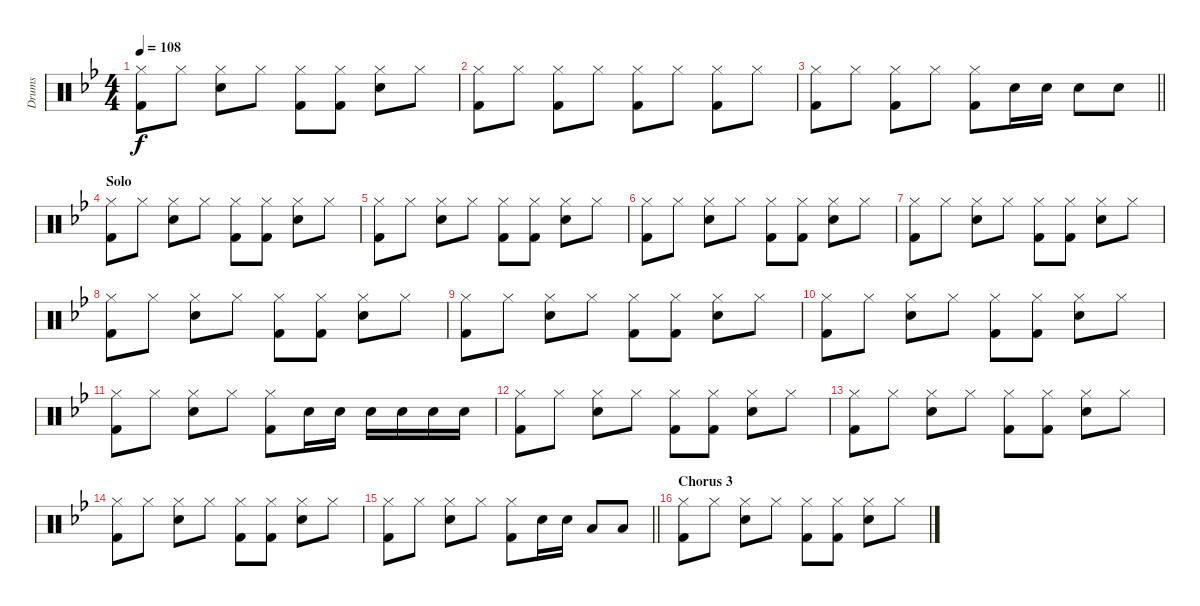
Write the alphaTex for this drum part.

\track ("Drums" "Drums") {instrument percussion}
\staff {score}
\articulation defaults
\ts (4 4)
\tempo 108
\clef neutral
\ks bb
("Hi-Hat (closed)" "Kick (hit) 2").8{dy f} "Hi-Hat (closed)".8 ("Hi-Hat (closed)" "Snare (hit) 2").8 "Hi-Hat (closed)".8 ("Hi-Hat (closed)" "Kick (hit) 2").8 ("Hi-Hat (closed)" "Kick (hit) 2").8 ("Hi-Hat (closed)" "Snare (hit) 2").8 "Hi-Hat (closed)".8 |
("Hi-Hat (closed)" "Kick (hit) 2").8 "Hi-Hat (closed)".8 ("Hi-Hat (closed)" "Kick (hit) 2").8 "Hi-Hat (closed)".8 ("Hi-Hat (closed)" "Kick (hit) 2").8 "Hi-Hat (closed)".8 ("Hi-Hat (closed)" "Kick (hit) 2").8 "Hi-Hat (closed)".8 |
\barLineRight lightlight
("Hi-Hat (closed)" "Kick (hit) 2").8 "Hi-Hat (closed)".8 ("Hi-Hat (closed)" "Kick (hit) 2").8 "Hi-Hat (closed)".8 ("Hi-Hat (closed)" "Kick (hit) 2").8 "Snare (hit) 2".16 "Snare (hit) 2".16 "Snare (hit) 2".8 "Snare (hit) 2".8 |
\section ("" "Solo")
("Hi-Hat (closed)" "Kick (hit) 2").8 "Hi-Hat (closed)".8 ("Hi-Hat (closed)" "Snare (hit) 2").8 "Hi-Hat (closed)".8 ("Hi-Hat (closed)" "Kick (hit) 2").8 ("Hi-Hat (closed)" "Kick (hit) 2").8 ("Hi-Hat (closed)" "Snare (hit) 2").8 "Hi-Hat (closed)".8 |
("Hi-Hat (closed)" "Kick (hit) 2").8 "Hi-Hat (closed)".8 ("Hi-Hat (closed)" "Snare (hit) 2").8 "Hi-Hat (closed)".8 ("Hi-Hat (closed)" "Kick (hit) 2").8 ("Hi-Hat (closed)" "Kick (hit) 2").8 ("Hi-Hat (closed)" "Snare (hit) 2").8 "Hi-Hat (closed)".8 |
("Hi-Hat (closed)" "Kick (hit) 2").8 "Hi-Hat (closed)".8 ("Hi-Hat (closed)" "Snare (hit) 2").8 "Hi-Hat (closed)".8 ("Hi-Hat (closed)" "Kick (hit) 2").8 ("Hi-Hat (closed)" "Kick (hit) 2").8 ("Hi-Hat (closed)" "Snare (hit) 2").8 "Hi-Hat (closed)".8 |
("Hi-Hat (closed)" "Kick (hit) 2").8 "Hi-Hat (closed)".8 ("Hi-Hat (closed)" "Snare (hit) 2").8 "Hi-Hat (closed)".8 ("Hi-Hat (closed)" "Kick (hit) 2").8 ("Hi-Hat (closed)" "Kick (hit) 2").8 ("Hi-Hat (closed)" "Snare (hit) 2").8 "Hi-Hat (closed)".8 |
("Hi-Hat (closed)" "Kick (hit) 2").8 "Hi-Hat (closed)".8 ("Hi-Hat (closed)" "Snare (hit) 2").8 "Hi-Hat (closed)".8 ("Hi-Hat (closed)" "Kick (hit) 2").8 ("Hi-Hat (closed)" "Kick (hit) 2").8 ("Hi-Hat (closed)" "Snare (hit) 2").8 "Hi-Hat (closed)".8 |
("Hi-Hat (closed)" "Kick (hit) 2").8 "Hi-Hat (closed)".8 ("Hi-Hat (closed)" "Snare (hit) 2").8 "Hi-Hat (closed)".8 ("Hi-Hat (closed)" "Kick (hit) 2").8 ("Hi-Hat (closed)" "Kick (hit) 2").8 ("Hi-Hat (closed)" "Snare (hit) 2").8 "Hi-Hat (closed)".8 |
("Hi-Hat (closed)" "Kick (hit) 2").8 "Hi-Hat (closed)".8 ("Hi-Hat (closed)" "Snare (hit) 2").8 "Hi-Hat (closed)".8 ("Hi-Hat (closed)" "Kick (hit) 2").8 ("Hi-Hat (closed)" "Kick (hit) 2").8 ("Hi-Hat (closed)" "Snare (hit) 2").8 "Hi-Hat (closed)".8 |
("Hi-Hat (closed)" "Kick (hit) 2").8 "Hi-Hat (closed)".8 ("Hi-Hat (closed)" "Snare (hit) 2").8 "Hi-Hat (closed)".8 ("Hi-Hat (closed)" "Kick (hit) 2").8 "Snare (hit) 2".16 "Snare (hit) 2".16 "Snare (hit) 2".16 "Snare (hit) 2".16 "Snare (hit) 2".16 "Snare (hit) 2".16 |
("Hi-Hat (closed)" "Kick (hit) 2").8 "Hi-Hat (closed)".8 ("Hi-Hat (closed)" "Snare (hit) 2").8 "Hi-Hat (closed)".8 ("Hi-Hat (closed)" "Kick (hit) 2").8 ("Hi-Hat (closed)" "Kick (hit) 2").8 ("Hi-Hat (closed)" "Snare (hit) 2").8 "Hi-Hat (closed)".8 |
("Hi-Hat (closed)" "Kick (hit) 2").8 "Hi-Hat (closed)".8 ("Hi-Hat (closed)" "Snare (hit) 2").8 "Hi-Hat (closed)".8 ("Hi-Hat (closed)" "Kick (hit) 2").8 ("Hi-Hat (closed)" "Kick (hit) 2").8 ("Hi-Hat (closed)" "Snare (hit) 2").8 "Hi-Hat (closed)".8 |
("Hi-Hat (closed)" "Kick (hit) 2").8 "Hi-Hat (closed)".8 ("Hi-Hat (closed)" "Snare (hit) 2").8 "Hi-Hat (closed)".8 ("Hi-Hat (closed)" "Kick (hit) 2").8 ("Hi-Hat (closed)" "Kick (hit) 2").8 ("Hi-Hat (closed)" "Snare (hit) 2").8 "Hi-Hat (closed)".8 |
\barLineRight lightlight
("Hi-Hat (closed)" "Kick (hit) 2").8 "Hi-Hat (closed)".8 ("Hi-Hat (closed)" "Snare (hit) 2").8 "Hi-Hat (closed)".8 ("Hi-Hat (closed)" "Kick (hit) 2").8 "Snare (hit) 2".16 "Snare (hit) 2".16 "Low Tom (hit)".8 "Low Tom (hit)".8 |
\section ("" "Chorus 3")
("Hi-Hat (closed)" "Kick (hit) 2").8 "Hi-Hat (closed)".8 ("Hi-Hat (closed)" "Snare (hit) 2").8 "Hi-Hat (closed)".8 ("Hi-Hat (closed)" "Kick (hit) 2").8 ("Hi-Hat (closed)" "Kick (hit) 2").8 ("Hi-Hat (closed)" "Snare (hit) 2").8 "Hi-Hat (closed)".8
